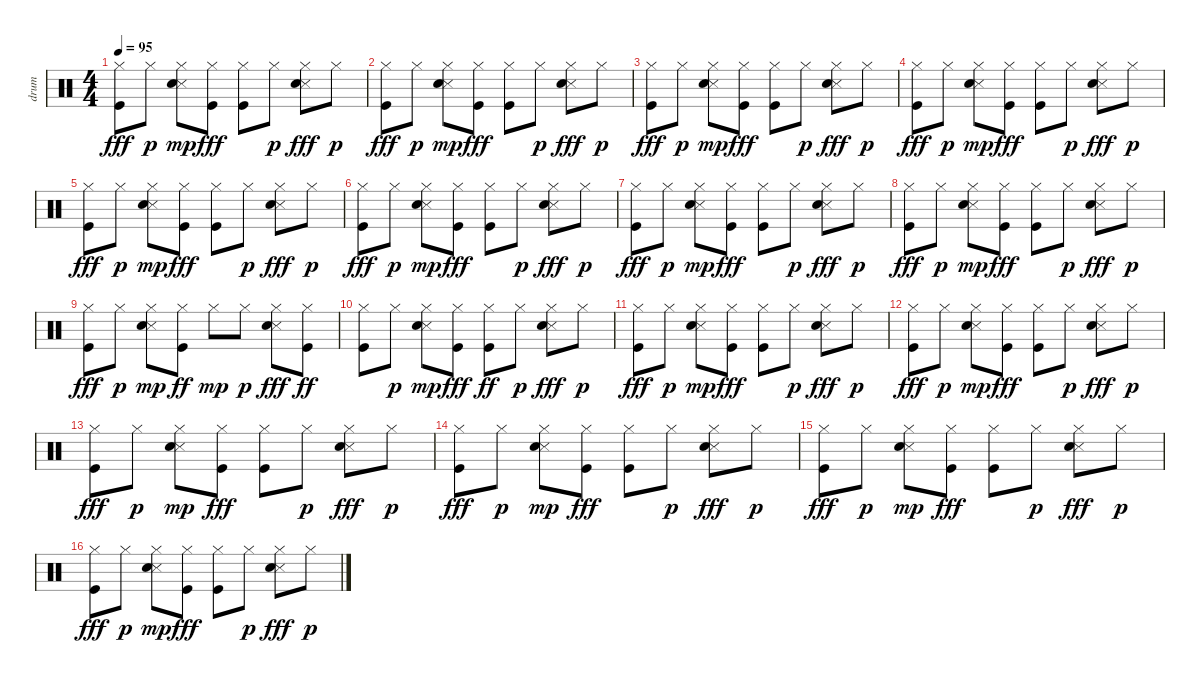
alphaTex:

\track ("drum" "drum") {instrument percussion}
\staff {score}
\articulation defaults
\ts (4 4)
\tempo 95
\clef neutral
\ks c
("Hi-Hat (closed)" "Kick (hit)").8{dy fff} "Hi-Hat (closed)".8{dy p} ("Hi-Hat (closed)" "Snare (side stick) 3" "Snare (hit) 2").8{dy mp} ("Hi-Hat (closed)" "Kick (hit)").8{dy fff} ("Hi-Hat (closed)" "Kick (hit)").8 "Hi-Hat (closed)".8{dy p} ("Hi-Hat (closed)" "Snare (side stick) 3" "Snare (hit) 2").8{dy fff} "Hi-Hat (closed)".8{dy p} |
("Hi-Hat (closed)" "Kick (hit)").8{dy fff} "Hi-Hat (closed)".8{dy p} ("Hi-Hat (closed)" "Snare (side stick) 3" "Snare (hit) 2").8{dy mp} ("Hi-Hat (closed)" "Kick (hit)").8{dy fff} ("Hi-Hat (closed)" "Kick (hit)").8 "Hi-Hat (closed)".8{dy p} ("Hi-Hat (closed)" "Snare (side stick) 3" "Snare (hit) 2").8{dy fff} "Hi-Hat (closed)".8{dy p} |
("Hi-Hat (closed)" "Kick (hit)").8{dy fff} "Hi-Hat (closed)".8{dy p} ("Hi-Hat (closed)" "Snare (side stick) 3" "Snare (hit) 2").8{dy mp} ("Hi-Hat (closed)" "Kick (hit)").8{dy fff} ("Hi-Hat (closed)" "Kick (hit)").8 "Hi-Hat (closed)".8{dy p} ("Hi-Hat (closed)" "Snare (side stick) 3" "Snare (hit) 2").8{dy fff} "Hi-Hat (closed)".8{dy p} |
("Hi-Hat (closed)" "Kick (hit)").8{dy fff} "Hi-Hat (closed)".8{dy p} ("Hi-Hat (closed)" "Snare (side stick) 3" "Snare (hit) 2").8{dy mp} ("Hi-Hat (closed)" "Kick (hit)").8{dy fff} ("Hi-Hat (closed)" "Kick (hit)").8 "Hi-Hat (closed)".8{dy p} ("Hi-Hat (closed)" "Snare (side stick) 3" "Snare (hit) 2").8{dy fff} "Hi-Hat (closed)".8{dy p} |
("Hi-Hat (closed)" "Kick (hit)").8{dy fff} "Hi-Hat (closed)".8{dy p} ("Hi-Hat (closed)" "Snare (side stick) 3" "Snare (hit) 2").8{dy mp} ("Hi-Hat (closed)" "Kick (hit)").8{dy fff} ("Hi-Hat (closed)" "Kick (hit)").8 "Hi-Hat (closed)".8{dy p} ("Hi-Hat (closed)" "Snare (side stick) 3" "Snare (hit) 2").8{dy fff} "Hi-Hat (closed)".8{dy p} |
("Hi-Hat (closed)" "Kick (hit)").8{dy fff} "Hi-Hat (closed)".8{dy p} ("Hi-Hat (closed)" "Snare (side stick) 3" "Snare (hit) 2").8{dy mp} ("Hi-Hat (closed)" "Kick (hit)").8{dy fff} ("Hi-Hat (closed)" "Kick (hit)").8 "Hi-Hat (closed)".8{dy p} ("Hi-Hat (closed)" "Snare (side stick) 3" "Snare (hit) 2").8{dy fff} "Hi-Hat (closed)".8{dy p} |
("Hi-Hat (closed)" "Kick (hit)").8{dy fff} "Hi-Hat (closed)".8{dy p} ("Hi-Hat (closed)" "Snare (side stick) 3" "Snare (hit) 2").8{dy mp} ("Hi-Hat (closed)" "Kick (hit)").8{dy fff} ("Hi-Hat (closed)" "Kick (hit)").8 "Hi-Hat (closed)".8{dy p} ("Hi-Hat (closed)" "Snare (side stick) 3" "Snare (hit) 2").8{dy fff} "Hi-Hat (closed)".8{dy p} |
("Hi-Hat (closed)" "Kick (hit)").8{dy fff} "Hi-Hat (closed)".8{dy p} ("Hi-Hat (closed)" "Snare (side stick) 3" "Snare (hit) 2").8{dy mp} ("Hi-Hat (closed)" "Kick (hit)").8{dy fff} ("Hi-Hat (closed)" "Kick (hit)").8 "Hi-Hat (closed)".8{dy p} ("Hi-Hat (closed)" "Snare (side stick) 3" "Snare (hit) 2").8{dy fff} "Hi-Hat (closed)".8{dy p} |
("Hi-Hat (closed)" "Kick (hit)").8{dy fff} "Hi-Hat (closed)".8{dy p} ("Hi-Hat (closed)" "Snare (side stick) 3" "Snare (hit) 2").8{dy mp} ("Hi-Hat (closed)" "Kick (hit)").8{dy ff} "Hi-Hat (closed)".8{dy mp} "Hi-Hat (closed)".8{dy p} ("Hi-Hat (closed)" "Snare (side stick) 3" "Snare (hit) 2").8{dy fff} ("Hi-Hat (closed)" "Kick (hit)").8{dy ff} |
("Hi-Hat (closed)" "Kick (hit)").8 "Hi-Hat (closed)".8{dy p} ("Hi-Hat (closed)" "Snare (side stick) 3" "Snare (hit) 2").8{dy mp} ("Hi-Hat (closed)" "Kick (hit)").8{dy fff} ("Hi-Hat (closed)" "Kick (hit)").8{dy ff} "Hi-Hat (closed)".8{dy p} ("Hi-Hat (closed)" "Snare (side stick) 3" "Snare (hit) 2").8{dy fff} "Hi-Hat (closed)".8{dy p} |
("Hi-Hat (closed)" "Kick (hit)").8{dy fff} "Hi-Hat (closed)".8{dy p} ("Hi-Hat (closed)" "Snare (side stick) 3" "Snare (hit) 2").8{dy mp} ("Hi-Hat (closed)" "Kick (hit)").8{dy fff} ("Hi-Hat (closed)" "Kick (hit)").8 "Hi-Hat (closed)".8{dy p} ("Hi-Hat (closed)" "Snare (side stick) 3" "Snare (hit) 2").8{dy fff} "Hi-Hat (closed)".8{dy p} |
("Hi-Hat (closed)" "Kick (hit)").8{dy fff} "Hi-Hat (closed)".8{dy p} ("Hi-Hat (closed)" "Snare (side stick) 3" "Snare (hit) 2").8{dy mp} ("Hi-Hat (closed)" "Kick (hit)").8{dy fff} ("Hi-Hat (closed)" "Kick (hit)").8 "Hi-Hat (closed)".8{dy p} ("Hi-Hat (closed)" "Snare (side stick) 3" "Snare (hit) 2").8{dy fff} "Hi-Hat (closed)".8{dy p} |
("Hi-Hat (closed)" "Kick (hit)").8{dy fff} "Hi-Hat (closed)".8{dy p} ("Hi-Hat (closed)" "Snare (side stick) 3" "Snare (hit) 2").8{dy mp} ("Hi-Hat (closed)" "Kick (hit)").8{dy fff} ("Hi-Hat (closed)" "Kick (hit)").8 "Hi-Hat (closed)".8{dy p} ("Hi-Hat (closed)" "Snare (side stick) 3" "Snare (hit) 2").8{dy fff} "Hi-Hat (closed)".8{dy p} |
("Hi-Hat (closed)" "Kick (hit)").8{dy fff} "Hi-Hat (closed)".8{dy p} ("Hi-Hat (closed)" "Snare (side stick) 3" "Snare (hit) 2").8{dy mp} ("Hi-Hat (closed)" "Kick (hit)").8{dy fff} ("Hi-Hat (closed)" "Kick (hit)").8 "Hi-Hat (closed)".8{dy p} ("Hi-Hat (closed)" "Snare (side stick) 3" "Snare (hit) 2").8{dy fff} "Hi-Hat (closed)".8{dy p} |
("Hi-Hat (closed)" "Kick (hit)").8{dy fff} "Hi-Hat (closed)".8{dy p} ("Hi-Hat (closed)" "Snare (side stick) 3" "Snare (hit) 2").8{dy mp} ("Hi-Hat (closed)" "Kick (hit)").8{dy fff} ("Hi-Hat (closed)" "Kick (hit)").8 "Hi-Hat (closed)".8{dy p} ("Hi-Hat (closed)" "Snare (side stick) 3" "Snare (hit) 2").8{dy fff} "Hi-Hat (closed)".8{dy p} |
("Hi-Hat (closed)" "Kick (hit)").8{dy fff} "Hi-Hat (closed)".8{dy p} ("Hi-Hat (closed)" "Snare (side stick) 3" "Snare (hit) 2").8{dy mp} ("Hi-Hat (closed)" "Kick (hit)").8{dy fff} ("Hi-Hat (closed)" "Kick (hit)").8 "Hi-Hat (closed)".8{dy p} ("Hi-Hat (closed)" "Snare (side stick) 3" "Snare (hit) 2").8{dy fff} "Hi-Hat (closed)".8{dy p}
